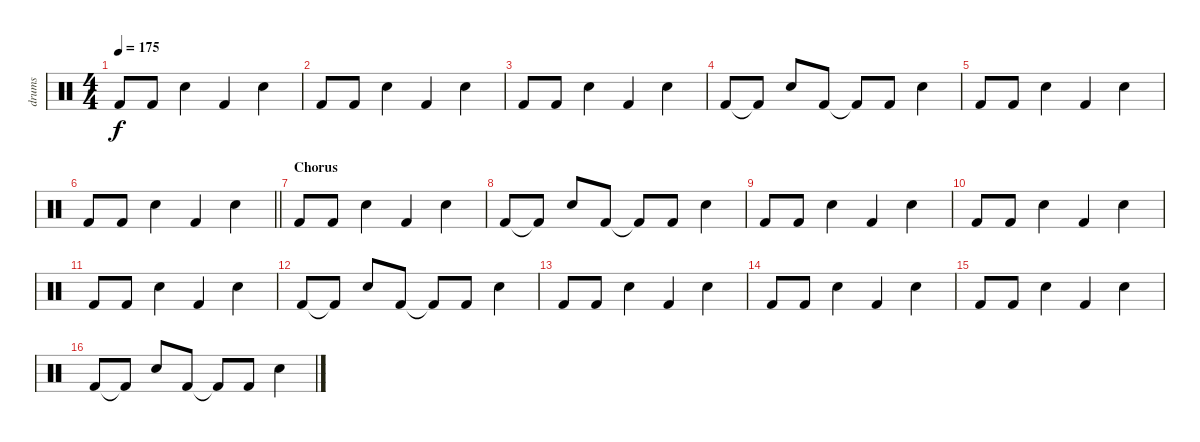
\track ("drums" "drums") {instrument percussion}
\staff {score}
\articulation defaults
\ts (4 4)
\tempo 175
\clef neutral
\ks c "Kick (hit) 2".8{dy f} "Kick (hit) 2".8 "Snare (hit) 2".4 "Kick (hit) 2".4 "Snare (hit) 2".4
|
"Kick (hit) 2".8 "Kick (hit) 2".8 "Snare (hit) 2".4 "Kick (hit) 2".4 "Snare (hit) 2".4 |
"Kick (hit) 2".8 "Kick (hit) 2".8 "Snare (hit) 2".4 "Kick (hit) 2".4 "Snare (hit) 2".4 |
"Kick (hit) 2".8 "Kick (hit) 2"{t}.8 "Snare (hit) 2".8 "Kick (hit) 2".8 "Kick (hit) 2"{t}.8 "Kick (hit) 2".8 "Snare (hit) 2".4 |
"Kick (hit) 2".8 "Kick (hit) 2".8 "Snare (hit) 2".4 "Kick (hit) 2".4 "Snare (hit) 2".4 |
\barLineRight lightlight "Kick (hit) 2".8 "Kick (hit) 2".8 "Snare (hit) 2".4 "Kick (hit) 2".4 "Snare (hit) 2".4
|
\section ("" "Chorus")
"Kick (hit) 2".8 "Kick (hit) 2".8 "Snare (hit) 2".4 "Kick (hit) 2".4 "Snare (hit) 2".4 |
"Kick (hit) 2".8 "Kick (hit) 2"{t}.8 "Snare (hit) 2".8 "Kick (hit) 2".8 "Kick (hit) 2"{t}.8 "Kick (hit) 2".8 "Snare (hit) 2".4 |
"Kick (hit) 2".8 "Kick (hit) 2".8 "Snare (hit) 2".4 "Kick (hit) 2".4 "Snare (hit) 2".4 |
"Kick (hit) 2".8 "Kick (hit) 2".8 "Snare (hit) 2".4 "Kick (hit) 2".4 "Snare (hit) 2".4 |
"Kick (hit) 2".8 "Kick (hit) 2".8 "Snare (hit) 2".4 "Kick (hit) 2".4 "Snare (hit) 2".4 |
"Kick (hit) 2".8 "Kick (hit) 2"{t}.8 "Snare (hit) 2".8 "Kick (hit) 2".8 "Kick (hit) 2"{t}.8 "Kick (hit) 2".8 "Snare (hit) 2".4 |
"Kick (hit) 2".8 "Kick (hit) 2".8 "Snare (hit) 2".4 "Kick (hit) 2".4 "Snare (hit) 2".4 |
"Kick (hit) 2".8 "Kick (hit) 2".8 "Snare (hit) 2".4 "Kick (hit) 2".4 "Snare (hit) 2".4 |
"Kick (hit) 2".8 "Kick (hit) 2".8 "Snare (hit) 2".4 "Kick (hit) 2".4 "Snare (hit) 2".4 |
"Kick (hit) 2".8 "Kick (hit) 2"{t}.8 "Snare (hit) 2".8 "Kick (hit) 2".8 "Kick (hit) 2"{t}.8 "Kick (hit) 2".8 "Snare (hit) 2".4
